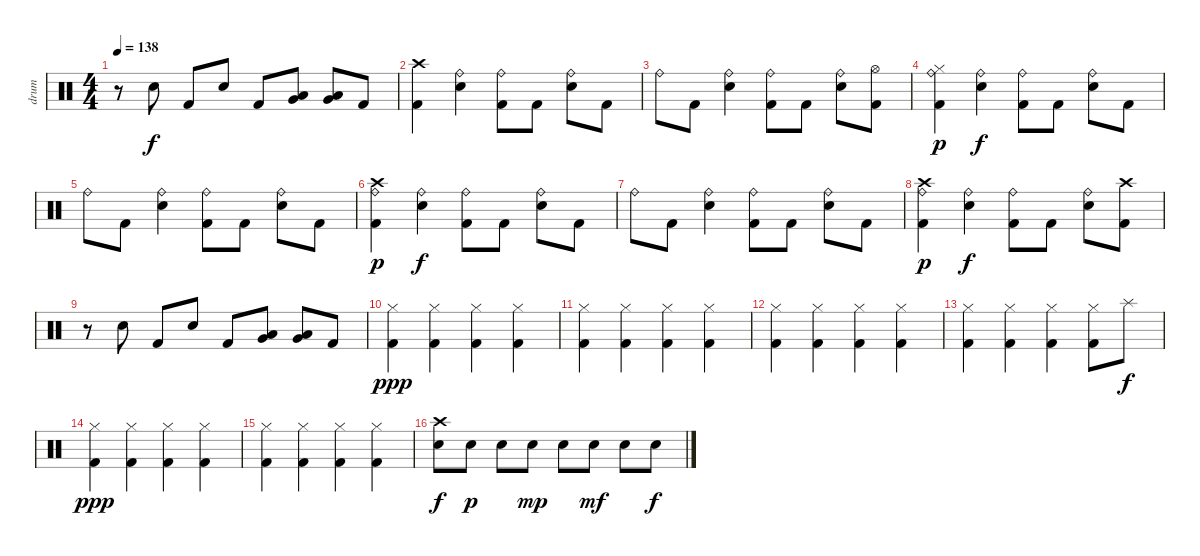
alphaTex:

\track ("drum" "drum") {instrument percussion}
\staff {score}
\articulation defaults
\ts (4 4)
\tempo 138
\clef neutral
\ks c
r.8{dy f} "Snare (hit) 2".8 "Kick (hit) 2".8 "Snare (hit) 2".8 "Kick (hit) 2".8 ("Low Tom (hit)" "Very Low Tom (hit)").8 ("Low Tom (hit)" "Very Low Tom (hit)").8 "Kick (hit) 2".8 |
("Crash high (hit)" "Kick (hit) 2").4 ("Ride (bell)" "Snare (hit) 2").4 ("Ride (bell)" "Kick (hit) 2").8 "Kick (hit) 2".8 ("Ride (bell)" "Snare (hit) 2").8 "Kick (hit) 2".8 |
"Ride (bell)".8 "Kick (hit) 2".8 ("Ride (bell)" "Snare (hit) 2").4 ("Ride (bell)" "Kick (hit) 2").8 "Kick (hit) 2".8 ("Ride (bell)" "Snare (hit) 2").8 ("Hi-Hat (open)" "Kick (hit) 2").8 |
("Ride (bell)" "Hi-Hat (closed)" "Kick (hit) 2").4{dy p} ("Ride (bell)" "Snare (hit) 2").4{dy f} ("Ride (bell)" "Kick (hit) 2").8 "Kick (hit) 2".8 ("Ride (bell)" "Snare (hit) 2").8 "Kick (hit) 2".8 |
"Ride (bell)".8 "Kick (hit) 2".8 ("Ride (bell)" "Snare (hit) 2").4 ("Ride (bell)" "Kick (hit) 2").8 "Kick (hit) 2".8 ("Ride (bell)" "Snare (hit) 2").8 "Kick (hit) 2".8 |
("Crash high (hit)" "Ride (bell)" "Kick (hit) 2").4{dy p} ("Ride (bell)" "Snare (hit) 2").4{dy f} ("Ride (bell)" "Kick (hit) 2").8 "Kick (hit) 2".8 ("Ride (bell)" "Snare (hit) 2").8 "Kick (hit) 2".8 |
"Ride (bell)".8 "Kick (hit) 2".8 ("Ride (bell)" "Snare (hit) 2").4 ("Ride (bell)" "Kick (hit) 2").8 "Kick (hit) 2".8 ("Ride (bell)" "Snare (hit) 2").8 "Kick (hit) 2".8 |
("Crash high (hit)" "Ride (bell)" "Kick (hit) 2").4{dy p} ("Ride (bell)" "Snare (hit) 2").4{dy f} ("Ride (bell)" "Kick (hit) 2").8 "Kick (hit) 2".8 ("Ride (bell)" "Snare (hit) 2").8 ("Crash high (hit)" "Kick (hit) 2").8 |
r.8 "Snare (hit) 2".8 "Kick (hit) 2".8 "Snare (hit) 2".8 "Kick (hit) 2".8 ("Low Tom (hit)" "Very Low Tom (hit)").8 ("Low Tom (hit)" "Very Low Tom (hit)").8 "Kick (hit) 2".8 |
("Hi-Hat (closed)" "Kick (hit) 2").4{dy ppp} ("Hi-Hat (closed)" "Kick (hit) 2").4 ("Hi-Hat (closed)" "Kick (hit) 2").4 ("Hi-Hat (closed)" "Kick (hit) 2").4 |
("Hi-Hat (closed)" "Kick (hit) 2").4 ("Hi-Hat (closed)" "Kick (hit) 2").4 ("Hi-Hat (closed)" "Kick (hit) 2").4 ("Hi-Hat (closed)" "Kick (hit) 2").4 |
("Hi-Hat (closed)" "Kick (hit) 2").4 ("Hi-Hat (closed)" "Kick (hit) 2").4 ("Hi-Hat (closed)" "Kick (hit) 2").4 ("Hi-Hat (closed)" "Kick (hit) 2").4 |
("Hi-Hat (closed)" "Kick (hit) 2").4 ("Hi-Hat (closed)" "Kick (hit) 2").4 ("Hi-Hat (closed)" "Kick (hit) 2").4 ("Hi-Hat (closed)" "Kick (hit) 2").8 "Splash (hit)".8{dy f} |
("Hi-Hat (closed)" "Kick (hit) 2").4{dy ppp} ("Hi-Hat (closed)" "Kick (hit) 2").4 ("Hi-Hat (closed)" "Kick (hit) 2").4 ("Hi-Hat (closed)" "Kick (hit) 2").4 |
("Hi-Hat (closed)" "Kick (hit) 2").4 ("Hi-Hat (closed)" "Kick (hit) 2").4 ("Hi-Hat (closed)" "Kick (hit) 2").4 ("Hi-Hat (closed)" "Kick (hit) 2").4 |
("Crash high (hit)" "Snare (hit) 2").8{dy f} "Snare (hit) 2".8{dy p} "Snare (hit) 2".8 "Snare (hit) 2".8{dy mp} "Snare (hit) 2".8 "Snare (hit) 2".8{dy mf} "Snare (hit) 2".8 "Snare (hit) 2".8{dy f}
